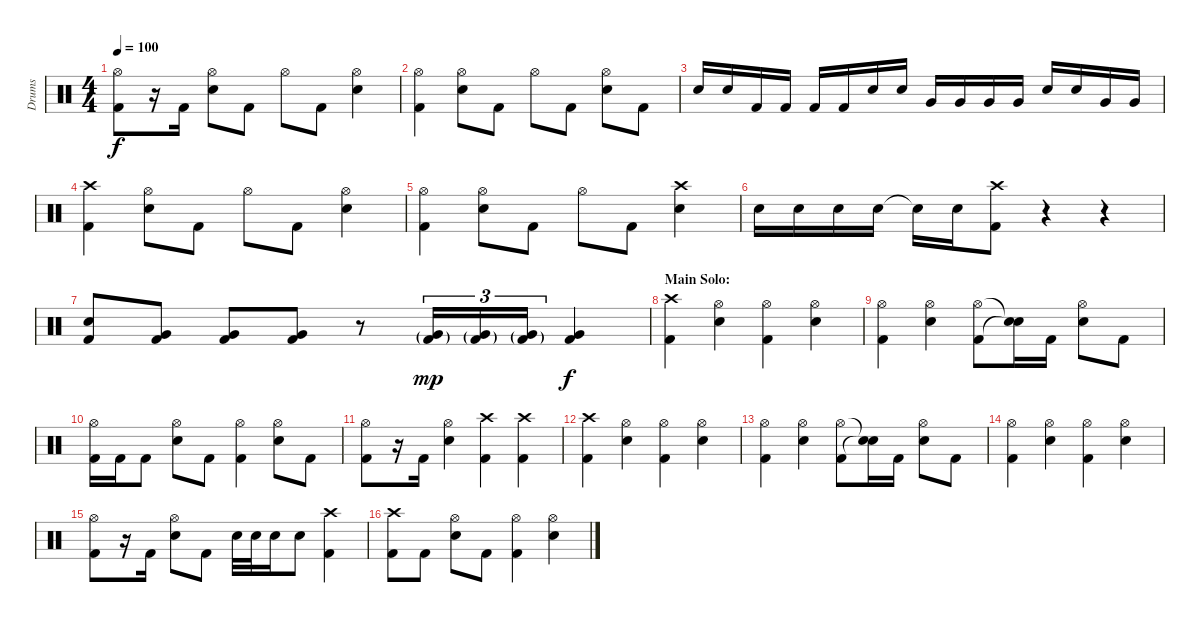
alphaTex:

\track ("Drums" "Drums") {instrument percussion}
\staff {score}
\articulation defaults
\ts (4 4)
\tempo 100
\clef neutral
\ks c
("Hi-Hat (open)" "Kick (hit) 2").8{dy f} r.16 "Kick (hit) 2".16 ("Hi-Hat (open)" "Electric Snare (hit)").8 "Kick (hit) 2".8 "Hi-Hat (open)".8 "Kick (hit) 2".8 ("Hi-Hat (open)" "Electric Snare (hit)").4 |
("Hi-Hat (open)" "Kick (hit) 2").4 ("Hi-Hat (open)" "Electric Snare (hit)").8 "Kick (hit) 2".8 "Hi-Hat (open)".8 "Kick (hit) 2".8 ("Hi-Hat (open)" "Electric Snare (hit)").8 "Kick (hit) 2".8 |
"Electric Snare (hit)".16 "Electric Snare (hit)".16 "Kick (hit) 2".16 "Kick (hit) 2".16 "Kick (hit) 2".16 "Kick (hit) 2".16 "Electric Snare (hit)".16 "Electric Snare (hit)".16 "Very Low Tom (hit)".16 "Very Low Tom (hit)".16 "Very Low Tom (hit)".16 "Very Low Tom (hit)".16 "Electric Snare (hit)".16 "Electric Snare (hit)".16 "Very Low Tom (hit)".16 "Very Low Tom (hit)".16 |
("Crash high (hit)" "Kick (hit) 2").4 ("Hi-Hat (open)" "Electric Snare (hit)").8 "Kick (hit) 2".8 "Hi-Hat (open)".8 "Kick (hit) 2".8 ("Hi-Hat (open)" "Electric Snare (hit)").4 |
("Hi-Hat (open)" "Kick (hit) 2").4 ("Hi-Hat (open)" "Electric Snare (hit)").8 "Kick (hit) 2".8 "Hi-Hat (open)".8 "Kick (hit) 2".8 ("Crash high (hit)" "Electric Snare (hit)").4 |
"Electric Snare (hit)".16 "Electric Snare (hit)".16 "Electric Snare (hit)".16 "Electric Snare (hit)".16 "Snare (hit)"{t}.16 "Electric Snare (hit)".16 ("Crash high (hit)" "Kick (hit) 2").8 r.4 r.4 |
("Electric Snare (hit)" "Kick (hit) 2").8 ("Very Low Tom (hit)" "Kick (hit) 2").8 ("Very Low Tom (hit)" "Kick (hit) 2").8 ("Very Low Tom (hit)" "Kick (hit) 2").8 r.8 ("Very Low Tom (hit)"{g} "Kick (hit) 2"{g}).16{tu (3 2) dy mp} ("Very Low Tom (hit)"{g} "Kick (hit) 2"{g}).16{tu (3 2)} ("Very Low Tom (hit)"{g} "Kick (hit) 2"{g}).16{tu (3 2)} ("Very Low Tom (hit)" "Kick (hit) 2").4{dy f} |
\section ("" "Main Solo:")
("Crash high (hit)" "Kick (hit) 2").4 ("Hi-Hat (open)" "Electric Snare (hit)").4 ("Hi-Hat (open)" "Kick (hit) 2").4 ("Hi-Hat (open)" "Electric Snare (hit)").4 |
("Hi-Hat (open)" "Kick (hit) 2").4 ("Hi-Hat (open)" "Electric Snare (hit)").4 ("Hi-Hat (open)" "Kick (hit) 2").8 ("Snare (hit)"{t} "Snare (hit)"{t}).16 "Kick (hit) 2".16 ("Hi-Hat (open)" "Electric Snare (hit)").8 "Kick (hit) 2".8 |
("Hi-Hat (open)" "Kick (hit) 2").16 "Kick (hit) 2".16 "Kick (hit) 2".8 ("Hi-Hat (open)" "Electric Snare (hit)").8 "Kick (hit) 2".8 ("Hi-Hat (open)" "Kick (hit) 2").4 ("Hi-Hat (open)" "Electric Snare (hit)").8 "Kick (hit) 2".8 |
("Hi-Hat (open)" "Kick (hit) 2").8 r.16 "Kick (hit) 2".16 ("Hi-Hat (open)" "Electric Snare (hit)").4 ("Crash high (hit)" "Kick (hit) 2").4 ("Crash high (hit)" "Kick (hit) 2").4 |
("Crash high (hit)" "Kick (hit) 2").4 ("Hi-Hat (open)" "Electric Snare (hit)").4 ("Hi-Hat (open)" "Kick (hit) 2").4 ("Hi-Hat (open)" "Electric Snare (hit)").4 |
("Hi-Hat (open)" "Kick (hit) 2").4 ("Hi-Hat (open)" "Electric Snare (hit)").4 ("Hi-Hat (open)" "Kick (hit) 2").8 ("Snare (hit)"{t} "Snare (hit)"{t}).16 "Kick (hit) 2".16 ("Hi-Hat (open)" "Electric Snare (hit)").8 "Kick (hit) 2".8 |
("Hi-Hat (open)" "Kick (hit) 2").4 ("Hi-Hat (open)" "Electric Snare (hit)").4 ("Hi-Hat (open)" "Kick (hit) 2").4 ("Hi-Hat (open)" "Electric Snare (hit)").4 |
("Hi-Hat (open)" "Kick (hit) 2").8 r.16 "Kick (hit) 2".16 ("Hi-Hat (open)" "Electric Snare (hit)").8 "Kick (hit) 2".8 "Electric Snare (hit)".32 "Electric Snare (hit)".32 "Electric Snare (hit)".16 "Electric Snare (hit)".8 ("Crash high (hit)" "Kick (hit) 2").4 |
("Crash high (hit)" "Kick (hit) 2").8 "Kick (hit) 2".8 ("Hi-Hat (open)" "Electric Snare (hit)").8 "Kick (hit) 2".8 ("Hi-Hat (open)" "Kick (hit) 2").4 ("Hi-Hat (open)" "Electric Snare (hit)").4
